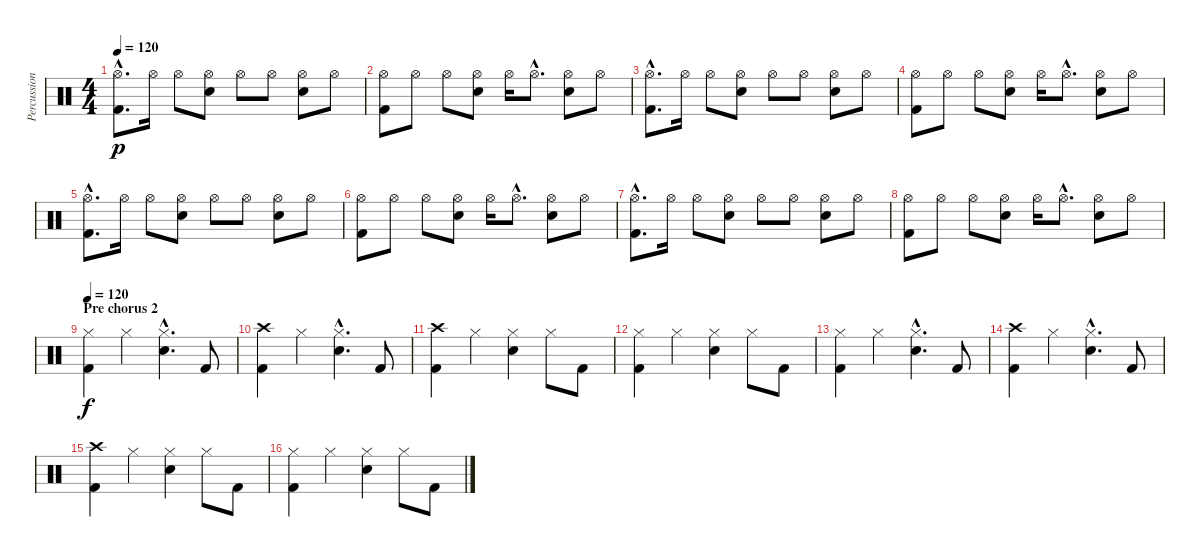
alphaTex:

\track ("Percussion" "Percussion") {instrument percussion}
\staff {score}
\articulation defaults
\ts (4 4)
\tempo 120
\clef neutral
\ks c
("Hi-Hat (open)"{hac} "Kick (hit) 2"{hac}).8{d dy p} "Hi-Hat (open)".16 "Hi-Hat (open)".8 ("Hi-Hat (open)" "Electric Snare (hit)").8 "Hi-Hat (open)".8 "Hi-Hat (open)".8 ("Hi-Hat (open)" "Electric Snare (hit)").8 "Hi-Hat (open)".8 |
("Hi-Hat (open)" "Kick (hit) 2").8 "Hi-Hat (open)".8 "Hi-Hat (open)".8 ("Hi-Hat (open)" "Electric Snare (hit)").8 "Hi-Hat (open)".16 "Hi-Hat (open)"{hac}.8{d} ("Hi-Hat (open)" "Electric Snare (hit)").8 "Hi-Hat (open)".8 |
("Hi-Hat (open)"{hac} "Kick (hit) 2"{hac}).8{d} "Hi-Hat (open)".16 "Hi-Hat (open)".8 ("Hi-Hat (open)" "Electric Snare (hit)").8 "Hi-Hat (open)".8 "Hi-Hat (open)".8 ("Hi-Hat (open)" "Electric Snare (hit)").8 "Hi-Hat (open)".8 |
("Hi-Hat (open)" "Kick (hit) 2").8 "Hi-Hat (open)".8 "Hi-Hat (open)".8 ("Hi-Hat (open)" "Electric Snare (hit)").8 "Hi-Hat (open)".16 "Hi-Hat (open)"{hac}.8{d} ("Hi-Hat (open)" "Electric Snare (hit)").8 "Hi-Hat (open)".8 |
("Hi-Hat (open)"{hac} "Kick (hit) 2"{hac}).8{d} "Hi-Hat (open)".16 "Hi-Hat (open)".8 ("Hi-Hat (open)" "Electric Snare (hit)").8 "Hi-Hat (open)".8 "Hi-Hat (open)".8 ("Hi-Hat (open)" "Electric Snare (hit)").8 "Hi-Hat (open)".8 |
("Hi-Hat (open)" "Kick (hit) 2").8 "Hi-Hat (open)".8 "Hi-Hat (open)".8 ("Hi-Hat (open)" "Electric Snare (hit)").8 "Hi-Hat (open)".16 "Hi-Hat (open)"{hac}.8{d} ("Hi-Hat (open)" "Electric Snare (hit)").8 "Hi-Hat (open)".8 |
("Hi-Hat (open)"{hac} "Kick (hit) 2"{hac}).8{d} "Hi-Hat (open)".16 "Hi-Hat (open)".8 ("Hi-Hat (open)" "Electric Snare (hit)").8 "Hi-Hat (open)".8 "Hi-Hat (open)".8 ("Hi-Hat (open)" "Electric Snare (hit)").8 "Hi-Hat (open)".8 |
("Hi-Hat (open)" "Kick (hit) 2").8 "Hi-Hat (open)".8 "Hi-Hat (open)".8 ("Hi-Hat (open)" "Electric Snare (hit)").8 "Hi-Hat (open)".16 "Hi-Hat (open)"{hac}.8{d} ("Hi-Hat (open)" "Electric Snare (hit)").8 "Hi-Hat (open)".8 |
\section ("" "Pre chorus 2 ")
\tempo 120
("Hi-Hat (closed)" "Kick (hit) 2").4{dy f} "Hi-Hat (closed)".4 ("Hi-Hat (closed)"{hac} "Electric Snare (hit)"{hac}).4{d} "Kick (hit) 2".8 |
("Crash high (hit)" "Kick (hit) 2").4 "Hi-Hat (closed)".4 ("Hi-Hat (closed)"{hac} "Electric Snare (hit)"{hac}).4{d} "Kick (hit) 2".8 |
("Crash high (hit)" "Kick (hit) 2").4 "Hi-Hat (closed)".4 ("Hi-Hat (closed)" "Electric Snare (hit)").4 "Hi-Hat (closed)".8 "Kick (hit) 2".8 |
("Hi-Hat (closed)" "Kick (hit) 2").4 "Hi-Hat (closed)".4 ("Hi-Hat (closed)" "Electric Snare (hit)").4 "Hi-Hat (closed)".8 "Kick (hit) 2".8 |
("Hi-Hat (closed)" "Kick (hit) 2").4 "Hi-Hat (closed)".4 ("Hi-Hat (closed)"{hac} "Electric Snare (hit)"{hac}).4{d} "Kick (hit) 2".8 |
("Crash high (hit)" "Kick (hit) 2").4 "Hi-Hat (closed)".4 ("Hi-Hat (closed)"{hac} "Electric Snare (hit)"{hac}).4{d} "Kick (hit) 2".8 |
("Crash high (hit)" "Kick (hit) 2").4 "Hi-Hat (closed)".4 ("Hi-Hat (closed)" "Electric Snare (hit)").4 "Hi-Hat (closed)".8 "Kick (hit) 2".8 |
("Hi-Hat (closed)" "Kick (hit) 2").4 "Hi-Hat (closed)".4 ("Hi-Hat (closed)" "Electric Snare (hit)").4 "Hi-Hat (closed)".8 "Kick (hit) 2".8
